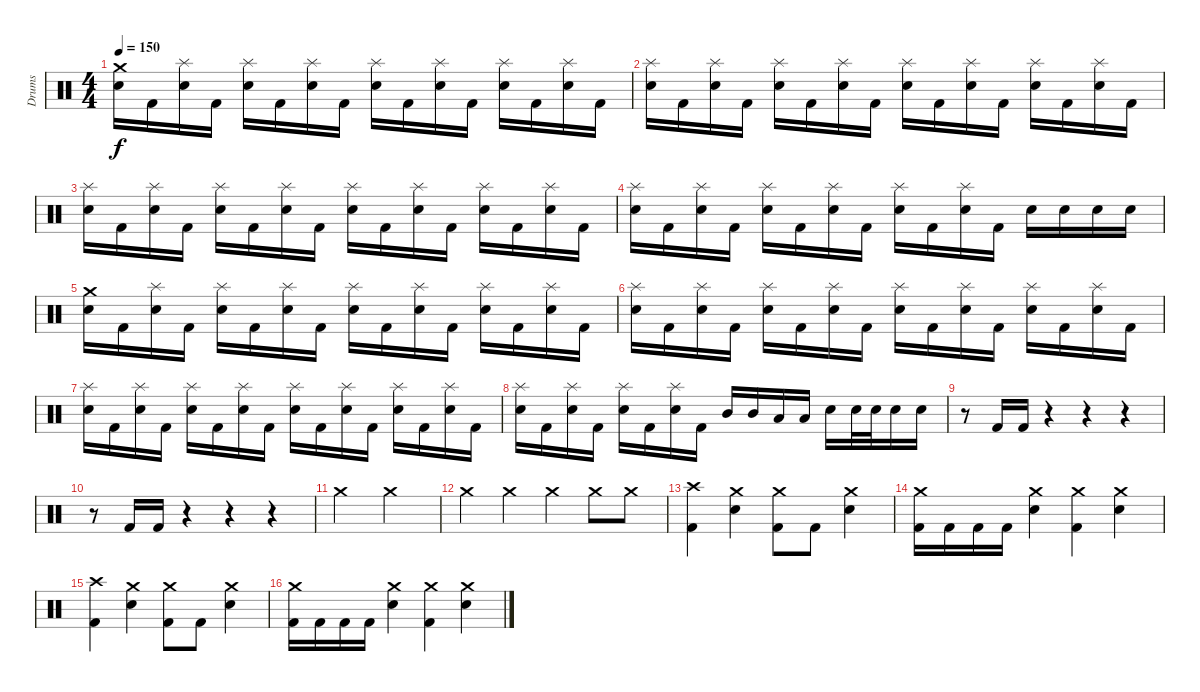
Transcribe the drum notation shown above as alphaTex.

\track ("Drums" "Drums") {instrument percussion}
\staff {score}
\articulation defaults
\ts (4 4)
\tempo 150
\clef neutral
\ks c
("Crash medium (hit)" "Electric Snare (hit)").16{dy f} "Kick (hit) 2".16 ("Splash (hit)" "Electric Snare (hit)").16 "Kick (hit) 2".16 ("Splash (hit)" "Electric Snare (hit)").16 "Kick (hit) 2".16 ("Splash (hit)" "Electric Snare (hit)").16 "Kick (hit) 2".16 ("Splash (hit)" "Electric Snare (hit)").16 "Kick (hit) 2".16 ("Splash (hit)" "Electric Snare (hit)").16 "Kick (hit) 2".16 ("Splash (hit)" "Electric Snare (hit)").16 "Kick (hit) 2".16 ("Splash (hit)" "Electric Snare (hit)").16 "Kick (hit) 2".16 |
("Splash (hit)" "Electric Snare (hit)").16 "Kick (hit) 2".16 ("Splash (hit)" "Electric Snare (hit)").16 "Kick (hit) 2".16 ("Splash (hit)" "Electric Snare (hit)").16 "Kick (hit) 2".16 ("Splash (hit)" "Electric Snare (hit)").16 "Kick (hit) 2".16 ("Splash (hit)" "Electric Snare (hit)").16 "Kick (hit) 2".16 ("Splash (hit)" "Electric Snare (hit)").16 "Kick (hit) 2".16 ("Splash (hit)" "Electric Snare (hit)").16 "Kick (hit) 2".16 ("Splash (hit)" "Electric Snare (hit)").16 "Kick (hit) 2".16 |
("Splash (hit)" "Electric Snare (hit)").16 "Kick (hit) 2".16 ("Splash (hit)" "Electric Snare (hit)").16 "Kick (hit) 2".16 ("Splash (hit)" "Electric Snare (hit)").16 "Kick (hit) 2".16 ("Splash (hit)" "Electric Snare (hit)").16 "Kick (hit) 2".16 ("Splash (hit)" "Electric Snare (hit)").16 "Kick (hit) 2".16 ("Splash (hit)" "Electric Snare (hit)").16 "Kick (hit) 2".16 ("Splash (hit)" "Electric Snare (hit)").16 "Kick (hit) 2".16 ("Splash (hit)" "Electric Snare (hit)").16 "Kick (hit) 2".16 |
("Splash (hit)" "Electric Snare (hit)").16 "Kick (hit) 2".16 ("Splash (hit)" "Electric Snare (hit)").16 "Kick (hit) 2".16 ("Splash (hit)" "Electric Snare (hit)").16 "Kick (hit) 2".16 ("Splash (hit)" "Electric Snare (hit)").16 "Kick (hit) 2".16 ("Splash (hit)" "Electric Snare (hit)").16 "Kick (hit) 2".16 ("Splash (hit)" "Electric Snare (hit)").16 "Kick (hit) 2".16 "Electric Snare (hit)".16 "Electric Snare (hit)".16 "Electric Snare (hit)".16 "Electric Snare (hit)".16 |
("Crash medium (hit)" "Electric Snare (hit)").16 "Kick (hit) 2".16 ("Splash (hit)" "Electric Snare (hit)").16 "Kick (hit) 2".16 ("Splash (hit)" "Electric Snare (hit)").16 "Kick (hit) 2".16 ("Splash (hit)" "Electric Snare (hit)").16 "Kick (hit) 2".16 ("Splash (hit)" "Electric Snare (hit)").16 "Kick (hit) 2".16 ("Splash (hit)" "Electric Snare (hit)").16 "Kick (hit) 2".16 ("Splash (hit)" "Electric Snare (hit)").16 "Kick (hit) 2".16 ("Splash (hit)" "Electric Snare (hit)").16 "Kick (hit) 2".16 |
("Splash (hit)" "Electric Snare (hit)").16 "Kick (hit) 2".16 ("Splash (hit)" "Electric Snare (hit)").16 "Kick (hit) 2".16 ("Splash (hit)" "Electric Snare (hit)").16 "Kick (hit) 2".16 ("Splash (hit)" "Electric Snare (hit)").16 "Kick (hit) 2".16 ("Splash (hit)" "Electric Snare (hit)").16 "Kick (hit) 2".16 ("Splash (hit)" "Electric Snare (hit)").16 "Kick (hit) 2".16 ("Splash (hit)" "Electric Snare (hit)").16 "Kick (hit) 2".16 ("Splash (hit)" "Electric Snare (hit)").16 "Kick (hit) 2".16 |
("Splash (hit)" "Electric Snare (hit)").16 "Kick (hit) 2".16 ("Splash (hit)" "Electric Snare (hit)").16 "Kick (hit) 2".16 ("Splash (hit)" "Electric Snare (hit)").16 "Kick (hit) 2".16 ("Splash (hit)" "Electric Snare (hit)").16 "Kick (hit) 2".16 ("Splash (hit)" "Electric Snare (hit)").16 "Kick (hit) 2".16 ("Splash (hit)" "Electric Snare (hit)").16 "Kick (hit) 2".16 ("Splash (hit)" "Electric Snare (hit)").16 "Kick (hit) 2".16 ("Splash (hit)" "Electric Snare (hit)").16 "Kick (hit) 2".16 |
("Splash (hit)" "Electric Snare (hit)").16 "Kick (hit) 2".16 ("Splash (hit)" "Electric Snare (hit)").16 "Kick (hit) 2".16 ("Splash (hit)" "Electric Snare (hit)").16 "Kick (hit) 2".16 ("Splash (hit)" "Electric Snare (hit)").16 "Kick (hit) 2".16 "Mid Tom (hit)".16 "Mid Tom (hit)".16 "Low Tom (hit)".16 "Low Tom (hit)".16 "Electric Snare (hit)".16 "Electric Snare (hit)".32 "Electric Snare (hit)".32 "Electric Snare (hit)".16 "Electric Snare (hit)".16 |
r.8 "Kick (hit) 2".16 "Kick (hit) 2".16 r.4 r.4 r.4 |
r.8 "Kick (hit) 2".16 "Kick (hit) 2".16 r.4 r.4 r.4 |
"Crash medium (hit)".2 "Crash medium (hit)".2 |
"Crash medium (hit)".4 "Crash medium (hit)".4 "Crash medium (hit)".4 "Crash medium (hit)".8 "Crash medium (hit)".8 |
("Crash high (hit)" "Kick (hit) 2").4 ("Crash medium (hit)" "Electric Snare (hit)").4 ("Crash medium (hit)" "Kick (hit) 2").8 "Kick (hit) 2".8 ("Crash medium (hit)" "Electric Snare (hit)").4 |
("Crash medium (hit)" "Kick (hit) 2").16 "Kick (hit) 2".16 "Kick (hit) 2".16 "Kick (hit) 2".16 ("Crash medium (hit)" "Electric Snare (hit)").4 ("Crash medium (hit)" "Kick (hit) 2").4 ("Crash medium (hit)" "Electric Snare (hit)").4 |
("Crash high (hit)" "Kick (hit) 2").4 ("Crash medium (hit)" "Electric Snare (hit)").4 ("Crash medium (hit)" "Kick (hit) 2").8 "Kick (hit) 2".8 ("Crash medium (hit)" "Electric Snare (hit)").4 |
("Crash medium (hit)" "Kick (hit) 2").16 "Kick (hit) 2".16 "Kick (hit) 2".16 "Kick (hit) 2".16 ("Crash medium (hit)" "Electric Snare (hit)").4 ("Crash medium (hit)" "Kick (hit) 2").4 ("Crash medium (hit)" "Electric Snare (hit)").4
